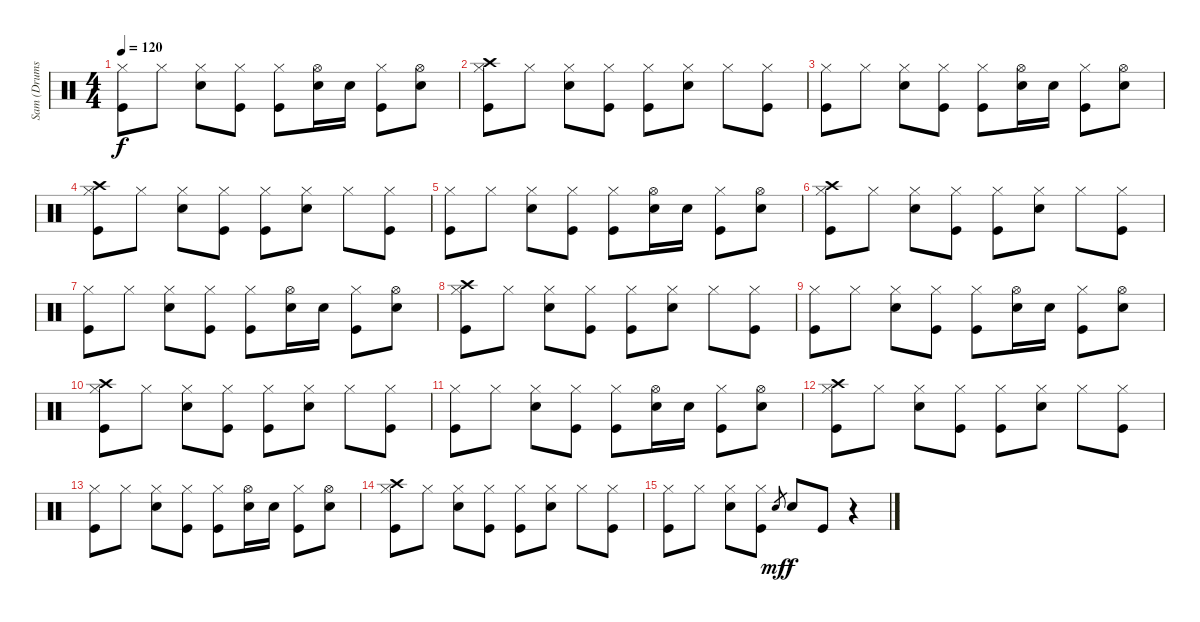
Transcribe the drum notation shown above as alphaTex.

\track ("Sam (Drums)" "Sam (Drums") {instrument percussion}
\staff {score}
\articulation defaults
\ts (4 4)
\tempo 120
\clef neutral
\ks c
("Hi-Hat (closed)" "Kick (hit)").8{dy f} "Hi-Hat (closed)".8 ("Hi-Hat (closed)" "Snare (hit) 2").8 ("Hi-Hat (closed)" "Kick (hit)").8 ("Hi-Hat (closed)" "Kick (hit)").8 ("Hi-Hat (open)" "Snare (hit) 2").16 "Snare (hit) 2".16 ("Hi-Hat (closed)" "Kick (hit)").8 ("Hi-Hat (open)" "Snare (hit) 2").8 |
("Crash high (hit)" "Hi-Hat (closed)" "Kick (hit)").8 "Hi-Hat (closed)".8 ("Hi-Hat (closed)" "Snare (hit) 2").8 ("Hi-Hat (closed)" "Kick (hit)").8 ("Hi-Hat (closed)" "Kick (hit)").8 ("Hi-Hat (closed)" "Snare (hit) 2").8 "Hi-Hat (closed)".8 ("Hi-Hat (closed)" "Kick (hit)").8 |
("Hi-Hat (closed)" "Kick (hit)").8 "Hi-Hat (closed)".8 ("Hi-Hat (closed)" "Snare (hit) 2").8 ("Hi-Hat (closed)" "Kick (hit)").8 ("Hi-Hat (closed)" "Kick (hit)").8 ("Hi-Hat (open)" "Snare (hit) 2").16 "Snare (hit) 2".16 ("Hi-Hat (closed)" "Kick (hit)").8 ("Hi-Hat (open)" "Snare (hit) 2").8 |
("Crash high (hit)" "Hi-Hat (closed)" "Kick (hit)").8 "Hi-Hat (closed)".8 ("Hi-Hat (closed)" "Snare (hit) 2").8 ("Hi-Hat (closed)" "Kick (hit)").8 ("Hi-Hat (closed)" "Kick (hit)").8 ("Hi-Hat (closed)" "Snare (hit) 2").8 "Hi-Hat (closed)".8 ("Hi-Hat (closed)" "Kick (hit)").8 |
("Hi-Hat (closed)" "Kick (hit)").8 "Hi-Hat (closed)".8 ("Hi-Hat (closed)" "Snare (hit) 2").8 ("Hi-Hat (closed)" "Kick (hit)").8 ("Hi-Hat (closed)" "Kick (hit)").8 ("Hi-Hat (open)" "Snare (hit) 2").16 "Snare (hit) 2".16 ("Hi-Hat (closed)" "Kick (hit)").8 ("Hi-Hat (open)" "Snare (hit) 2").8 |
("Crash high (hit)" "Hi-Hat (closed)" "Kick (hit)").8 "Hi-Hat (closed)".8 ("Hi-Hat (closed)" "Snare (hit) 2").8 ("Hi-Hat (closed)" "Kick (hit)").8 ("Hi-Hat (closed)" "Kick (hit)").8 ("Hi-Hat (closed)" "Snare (hit) 2").8 "Hi-Hat (closed)".8 ("Hi-Hat (closed)" "Kick (hit)").8 |
("Hi-Hat (closed)" "Kick (hit)").8 "Hi-Hat (closed)".8 ("Hi-Hat (closed)" "Snare (hit) 2").8 ("Hi-Hat (closed)" "Kick (hit)").8 ("Hi-Hat (closed)" "Kick (hit)").8 ("Hi-Hat (open)" "Snare (hit) 2").16 "Snare (hit) 2".16 ("Hi-Hat (closed)" "Kick (hit)").8 ("Hi-Hat (open)" "Snare (hit) 2").8 |
("Crash high (hit)" "Hi-Hat (closed)" "Kick (hit)").8 "Hi-Hat (closed)".8 ("Hi-Hat (closed)" "Snare (hit) 2").8 ("Hi-Hat (closed)" "Kick (hit)").8 ("Hi-Hat (closed)" "Kick (hit)").8 ("Hi-Hat (closed)" "Snare (hit) 2").8 "Hi-Hat (closed)".8 ("Hi-Hat (closed)" "Kick (hit)").8 |
("Hi-Hat (closed)" "Kick (hit)").8 "Hi-Hat (closed)".8 ("Hi-Hat (closed)" "Snare (hit) 2").8 ("Hi-Hat (closed)" "Kick (hit)").8 ("Hi-Hat (closed)" "Kick (hit)").8 ("Hi-Hat (open)" "Snare (hit) 2").16 "Snare (hit) 2".16 ("Hi-Hat (closed)" "Kick (hit)").8 ("Hi-Hat (open)" "Snare (hit) 2").8 |
("Crash high (hit)" "Hi-Hat (closed)" "Kick (hit)").8 "Hi-Hat (closed)".8 ("Hi-Hat (closed)" "Snare (hit) 2").8 ("Hi-Hat (closed)" "Kick (hit)").8 ("Hi-Hat (closed)" "Kick (hit)").8 ("Hi-Hat (closed)" "Snare (hit) 2").8 "Hi-Hat (closed)".8 ("Hi-Hat (closed)" "Kick (hit)").8 |
("Hi-Hat (closed)" "Kick (hit)").8 "Hi-Hat (closed)".8 ("Hi-Hat (closed)" "Snare (hit) 2").8 ("Hi-Hat (closed)" "Kick (hit)").8 ("Hi-Hat (closed)" "Kick (hit)").8 ("Hi-Hat (open)" "Snare (hit) 2").16 "Snare (hit) 2".16 ("Hi-Hat (closed)" "Kick (hit)").8 ("Hi-Hat (open)" "Snare (hit) 2").8 |
("Crash high (hit)" "Hi-Hat (closed)" "Kick (hit)").8 "Hi-Hat (closed)".8 ("Hi-Hat (closed)" "Snare (hit) 2").8 ("Hi-Hat (closed)" "Kick (hit)").8 ("Hi-Hat (closed)" "Kick (hit)").8 ("Hi-Hat (closed)" "Snare (hit) 2").8 "Hi-Hat (closed)".8 ("Hi-Hat (closed)" "Kick (hit)").8 |
("Hi-Hat (closed)" "Kick (hit)").8 "Hi-Hat (closed)".8 ("Hi-Hat (closed)" "Snare (hit) 2").8 ("Hi-Hat (closed)" "Kick (hit)").8 ("Hi-Hat (closed)" "Kick (hit)").8 ("Hi-Hat (open)" "Snare (hit) 2").16 "Snare (hit) 2".16 ("Hi-Hat (closed)" "Kick (hit)").8 ("Hi-Hat (open)" "Snare (hit) 2").8 |
("Crash high (hit)" "Hi-Hat (closed)" "Kick (hit)").8 "Hi-Hat (closed)".8 ("Hi-Hat (closed)" "Snare (hit) 2").8 ("Hi-Hat (closed)" "Kick (hit)").8 ("Hi-Hat (closed)" "Kick (hit)").8 ("Hi-Hat (closed)" "Snare (hit) 2").8 "Hi-Hat (closed)".8 ("Hi-Hat (closed)" "Kick (hit)").8 |
("Hi-Hat (closed)" "Kick (hit)").8 "Hi-Hat (closed)".8 ("Hi-Hat (closed)" "Snare (hit) 2").8 ("Hi-Hat (closed)" "Kick (hit)").8 "Snare (hit) 2".8{gr dy mf} "Snare (hit) 2".8{dy f} "Kick (hit)".8 r.4
